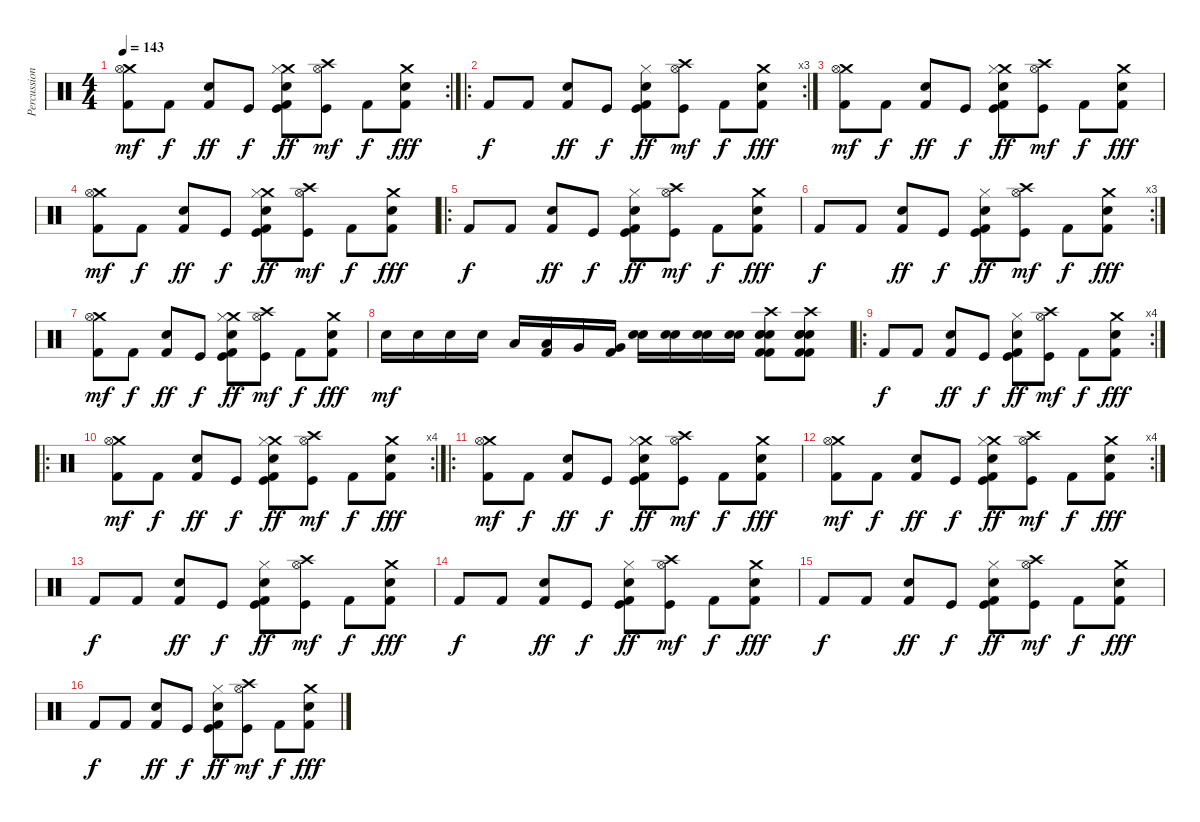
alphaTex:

\track ("Percussion" "Percussion") {instrument percussion}
\staff {score}
\articulation defaults
\rc 2
\ts (4 4)
\tempo 143
\clef neutral
\ks c
("Crash medium (hit)" "Kick (hit) 2" "Hi-Hat (open)").8{dy mf} "Kick (hit) 2".8{dy f} ("Electric Snare (hit)" "Kick (hit) 2").8{dy ff} "Kick (hit)".8{dy f} ("Crash medium (hit)" "Snare (hit) 2" "Kick (hit)" "Kick (hit) 2" "Hi-Hat (closed)").8{dy ff} ("Hi-Hat (open)" "Kick (hit)" "Crash high (hit)").8{dy mf} "Kick (hit) 2".8{dy f} ("Crash medium (hit)" "Electric Snare (hit)" "Kick (hit) 2").8{dy fff} |
\ro
\rc 3 "Kick (hit) 2".8{dy f} "Kick (hit) 2".8
("Electric Snare (hit)" "Kick (hit) 2").8{dy ff} "Kick (hit)".8{dy f} ("Snare (hit) 2" "Kick (hit)" "Kick (hit) 2" "Hi-Hat (closed)").8{dy ff} ("Hi-Hat (open)" "Kick (hit)" "Crash high (hit)").8{dy mf} "Kick (hit) 2".8{dy f} ("Crash medium (hit)" "Electric Snare (hit)" "Kick (hit) 2").8{dy fff} |
("Crash medium (hit)" "Kick (hit) 2" "Hi-Hat (open)").8{dy mf} "Kick (hit) 2".8{dy f} ("Electric Snare (hit)" "Kick (hit) 2").8{dy ff} "Kick (hit)".8{dy f} ("Crash medium (hit)" "Snare (hit) 2" "Kick (hit)" "Kick (hit) 2" "Hi-Hat (closed)").8{dy ff} ("Hi-Hat (open)" "Kick (hit)" "Crash high (hit)").8{dy mf} "Kick (hit) 2".8{dy f} ("Crash medium (hit)" "Electric Snare (hit)" "Kick (hit) 2").8{dy fff} |
("Crash medium (hit)" "Kick (hit) 2" "Hi-Hat (open)").8{dy mf} "Kick (hit) 2".8{dy f} ("Electric Snare (hit)" "Kick (hit) 2").8{dy ff} "Kick (hit)".8{dy f} ("Crash medium (hit)" "Snare (hit) 2" "Kick (hit)" "Kick (hit) 2" "Hi-Hat (closed)").8{dy ff} ("Hi-Hat (open)" "Kick (hit)" "Crash high (hit)").8{dy mf} "Kick (hit) 2".8{dy f} ("Crash medium (hit)" "Electric Snare (hit)" "Kick (hit) 2").8{dy fff} |
\ro "Kick (hit) 2".8{dy f} "Kick (hit) 2".8
("Electric Snare (hit)" "Kick (hit) 2").8{dy ff} "Kick (hit)".8{dy f} ("Snare (hit) 2" "Kick (hit)" "Kick (hit) 2" "Hi-Hat (closed)").8{dy ff} ("Hi-Hat (open)" "Kick (hit)" "Crash high (hit)").8{dy mf} "Kick (hit) 2".8{dy f} ("Crash medium (hit)" "Electric Snare (hit)" "Kick (hit) 2").8{dy fff} |
\rc 3 "Kick (hit) 2".8{dy f} "Kick (hit) 2".8
("Electric Snare (hit)" "Kick (hit) 2").8{dy ff} "Kick (hit)".8{dy f} ("Snare (hit) 2" "Kick (hit)" "Kick (hit) 2" "Hi-Hat (closed)").8{dy ff} ("Hi-Hat (open)" "Kick (hit)" "Crash high (hit)").8{dy mf} "Kick (hit) 2".8{dy f} ("Crash medium (hit)" "Electric Snare (hit)" "Kick (hit) 2").8{dy fff} |
("Crash medium (hit)" "Kick (hit) 2" "Hi-Hat (open)").8{dy mf} "Kick (hit) 2".8{dy f} ("Electric Snare (hit)" "Kick (hit) 2").8{dy ff} "Kick (hit)".8{dy f} ("Crash medium (hit)" "Snare (hit) 2" "Kick (hit)" "Kick (hit) 2" "Hi-Hat (closed)").8{dy ff} ("Hi-Hat (open)" "Kick (hit)" "Crash high (hit)").8{dy mf} "Kick (hit) 2".8{dy f} ("Crash medium (hit)" "Electric Snare (hit)" "Kick (hit) 2").8{dy fff} |
"Electric Snare (hit)".16{dy mf} "Electric Snare (hit)".16 "Electric Snare (hit)".16 "Electric Snare (hit)".16 "Low Floor Tom (hit)".16 ("Kick (hit) 2" "Low Floor Tom (hit)").16 "Very Low Tom (hit)".16 ("Kick (hit) 2" "Very Low Tom (hit)").16 ("Snare (hit) 2" "Electric Snare (hit)").16 ("Snare (hit) 2" "Electric Snare (hit)").16 ("Snare (hit) 2" "Electric Snare (hit)").16 ("Snare (hit) 2" "Electric Snare (hit)").16 ("Electric Snare (hit)" "Electric Snare (hit)" "Kick (hit) 2" "Kick (hit) 2" "Snare (hit) 2" "Crash high (hit)").8 ("Electric Snare (hit)" "Electric Snare (hit)" "Kick (hit) 2" "Kick (hit) 2" "Snare (hit) 2" "Crash high (hit)").8 |
\ro
\rc 4 "Kick (hit) 2".8{dy f} "Kick (hit) 2".8
("Electric Snare (hit)" "Kick (hit) 2").8{dy ff} "Kick (hit)".8{dy f} ("Snare (hit) 2" "Kick (hit)" "Kick (hit) 2" "Hi-Hat (closed)").8{dy ff} ("Hi-Hat (open)" "Kick (hit)" "Crash high (hit)").8{dy mf} "Kick (hit) 2".8{dy f} ("Crash medium (hit)" "Electric Snare (hit)" "Kick (hit) 2").8{dy fff} |
\ro
\rc 4
("Crash medium (hit)" "Kick (hit) 2" "Hi-Hat (open)").8{dy mf} "Kick (hit) 2".8{dy f} ("Electric Snare (hit)" "Kick (hit) 2").8{dy ff} "Kick (hit)".8{dy f} ("Crash medium (hit)" "Snare (hit) 2" "Kick (hit)" "Kick (hit) 2" "Hi-Hat (closed)").8{dy ff} ("Hi-Hat (open)" "Kick (hit)" "Crash high (hit)").8{dy mf} "Kick (hit) 2".8{dy f} ("Crash medium (hit)" "Electric Snare (hit)" "Kick (hit) 2").8{dy fff} |
\ro
("Crash medium (hit)" "Kick (hit) 2" "Hi-Hat (open)").8{dy mf} "Kick (hit) 2".8{dy f} ("Electric Snare (hit)" "Kick (hit) 2").8{dy ff} "Kick (hit)".8{dy f} ("Crash medium (hit)" "Snare (hit) 2" "Kick (hit)" "Kick (hit) 2" "Hi-Hat (closed)").8{dy ff} ("Hi-Hat (open)" "Kick (hit)" "Crash high (hit)").8{dy mf} "Kick (hit) 2".8{dy f} ("Crash medium (hit)" "Electric Snare (hit)" "Kick (hit) 2").8{dy fff} |
\rc 4
("Crash medium (hit)" "Kick (hit) 2" "Hi-Hat (open)").8{dy mf} "Kick (hit) 2".8{dy f} ("Electric Snare (hit)" "Kick (hit) 2").8{dy ff} "Kick (hit)".8{dy f} ("Crash medium (hit)" "Snare (hit) 2" "Kick (hit)" "Kick (hit) 2" "Hi-Hat (closed)").8{dy ff} ("Hi-Hat (open)" "Kick (hit)" "Crash high (hit)").8{dy mf} "Kick (hit) 2".8{dy f} ("Crash medium (hit)" "Electric Snare (hit)" "Kick (hit) 2").8{dy fff} |
"Kick (hit) 2".8{dy f} "Kick (hit) 2".8 ("Electric Snare (hit)" "Kick (hit) 2").8{dy ff} "Kick (hit)".8{dy f} ("Snare (hit) 2" "Kick (hit)" "Kick (hit) 2" "Hi-Hat (closed)").8{dy ff} ("Hi-Hat (open)" "Kick (hit)" "Crash high (hit)").8{dy mf} "Kick (hit) 2".8{dy f} ("Crash medium (hit)" "Electric Snare (hit)" "Kick (hit) 2").8{dy fff} |
"Kick (hit) 2".8{dy f} "Kick (hit) 2".8 ("Electric Snare (hit)" "Kick (hit) 2").8{dy ff} "Kick (hit)".8{dy f} ("Snare (hit) 2" "Kick (hit)" "Kick (hit) 2" "Hi-Hat (closed)").8{dy ff} ("Hi-Hat (open)" "Kick (hit)" "Crash high (hit)").8{dy mf} "Kick (hit) 2".8{dy f} ("Crash medium (hit)" "Electric Snare (hit)" "Kick (hit) 2").8{dy fff} |
"Kick (hit) 2".8{dy f} "Kick (hit) 2".8 ("Electric Snare (hit)" "Kick (hit) 2").8{dy ff} "Kick (hit)".8{dy f} ("Snare (hit) 2" "Kick (hit)" "Kick (hit) 2" "Hi-Hat (closed)").8{dy ff} ("Hi-Hat (open)" "Kick (hit)" "Crash high (hit)").8{dy mf} "Kick (hit) 2".8{dy f} ("Crash medium (hit)" "Electric Snare (hit)" "Kick (hit) 2").8{dy fff} |
"Kick (hit) 2".8{dy f} "Kick (hit) 2".8 ("Electric Snare (hit)" "Kick (hit) 2").8{dy ff} "Kick (hit)".8{dy f} ("Snare (hit) 2" "Kick (hit)" "Kick (hit) 2" "Hi-Hat (closed)").8{dy ff} ("Hi-Hat (open)" "Kick (hit)" "Crash high (hit)").8{dy mf} "Kick (hit) 2".8{dy f} ("Crash medium (hit)" "Electric Snare (hit)" "Kick (hit) 2").8{dy fff}
